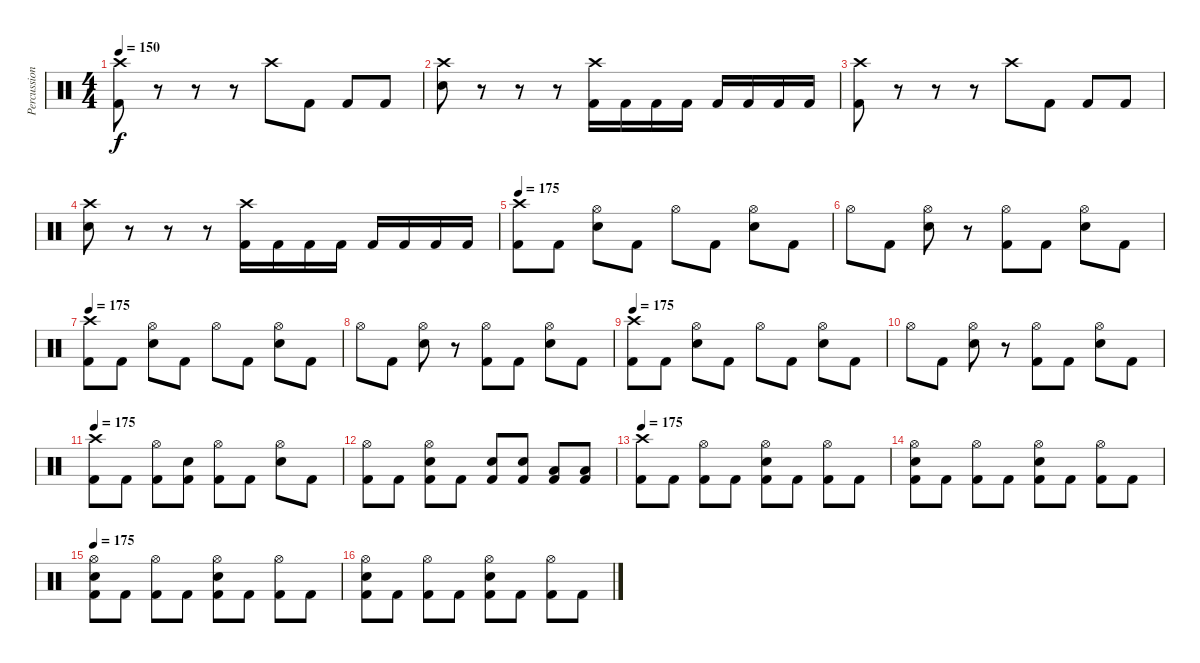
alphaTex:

\track ("Percussion" "Percussion") {instrument percussion}
\staff {score}
\articulation defaults
\ts (4 4)
\tempo 150
\clef neutral
\ks c
("Crash high (hit)" "Kick (hit) 2").8{dy f} r.8 r.8 r.8 "Crash high (hit)".8 "Kick (hit) 2".8 "Kick (hit) 2".8 "Kick (hit) 2".8 |
("Crash high (hit)" "Electric Snare (hit)").8 r.8 r.8 r.8 ("Crash high (hit)" "Kick (hit) 2").16 "Kick (hit) 2".16 "Kick (hit) 2".16 "Kick (hit) 2".16 "Kick (hit) 2".16 "Kick (hit) 2".16 "Kick (hit) 2".16 "Kick (hit) 2".16 |
("Crash high (hit)" "Kick (hit) 2").8 r.8 r.8 r.8 "Crash high (hit)".8 "Kick (hit) 2".8 "Kick (hit) 2".8 "Kick (hit) 2".8 |
("Crash high (hit)" "Electric Snare (hit)").8 r.8 r.8 r.8 ("Crash high (hit)" "Kick (hit) 2").16 "Kick (hit) 2".16 "Kick (hit) 2".16 "Kick (hit) 2".16 "Kick (hit) 2".16 "Kick (hit) 2".16 "Kick (hit) 2".16 "Kick (hit) 2".16 |
\tempo 175
("Crash high (hit)" "Kick (hit) 2").8 "Kick (hit) 2".8 ("Hi-Hat (open)" "Electric Snare (hit)").8 "Kick (hit) 2".8 "Hi-Hat (open)".8 "Kick (hit) 2".8 ("Hi-Hat (open)" "Electric Snare (hit)").8 "Kick (hit) 2".8 |
"Hi-Hat (open)".8 "Kick (hit) 2".8 ("Hi-Hat (open)" "Electric Snare (hit)").8 r.8 ("Hi-Hat (open)" "Kick (hit) 2").8 "Kick (hit) 2".8 ("Hi-Hat (open)" "Electric Snare (hit)").8 "Kick (hit) 2".8 |
\tempo 175
("Crash high (hit)" "Kick (hit) 2").8 "Kick (hit) 2".8 ("Hi-Hat (open)" "Electric Snare (hit)").8 "Kick (hit) 2".8 "Hi-Hat (open)".8 "Kick (hit) 2".8 ("Hi-Hat (open)" "Electric Snare (hit)").8 "Kick (hit) 2".8 |
"Hi-Hat (open)".8 "Kick (hit) 2".8 ("Hi-Hat (open)" "Electric Snare (hit)").8 r.8 ("Hi-Hat (open)" "Kick (hit) 2").8 "Kick (hit) 2".8 ("Hi-Hat (open)" "Electric Snare (hit)").8 "Kick (hit) 2".8 |
\tempo 175
("Crash high (hit)" "Kick (hit) 2").8 "Kick (hit) 2".8 ("Hi-Hat (open)" "Electric Snare (hit)").8 "Kick (hit) 2".8 "Hi-Hat (open)".8 "Kick (hit) 2".8 ("Hi-Hat (open)" "Electric Snare (hit)").8 "Kick (hit) 2".8 |
"Hi-Hat (open)".8 "Kick (hit) 2".8 ("Hi-Hat (open)" "Electric Snare (hit)").8 r.8 ("Hi-Hat (open)" "Kick (hit) 2").8 "Kick (hit) 2".8 ("Hi-Hat (open)" "Electric Snare (hit)").8 "Kick (hit) 2".8 |
\tempo 175
("Crash high (hit)" "Kick (hit) 2").8 "Kick (hit) 2".8 ("Hi-Hat (open)" "Kick (hit) 2").8 ("Electric Snare (hit)" "Kick (hit) 2").8 ("Hi-Hat (open)" "Kick (hit) 2").8 "Kick (hit) 2".8 ("Hi-Hat (open)" "Electric Snare (hit)").8 "Kick (hit) 2".8 |
("Hi-Hat (open)" "Kick (hit) 2").8 "Kick (hit) 2".8 ("Hi-Hat (open)" "Electric Snare (hit)" "Kick (hit) 2").8 "Kick (hit) 2".8 ("Electric Snare (hit)" "Kick (hit) 2").8 ("Electric Snare (hit)" "Kick (hit) 2").8 ("Low Tom (hit)" "Kick (hit) 2").8 ("Low Tom (hit)" "Kick (hit) 2").8 |
\tempo 175
("Crash high (hit)" "Kick (hit) 2").8 "Kick (hit) 2".8 ("Hi-Hat (open)" "Kick (hit) 2").8 "Kick (hit) 2".8 ("Hi-Hat (open)" "Electric Snare (hit)" "Kick (hit) 2").8 "Kick (hit) 2".8 ("Hi-Hat (open)" "Kick (hit) 2").8 "Kick (hit) 2".8 |
("Hi-Hat (open)" "Electric Snare (hit)" "Kick (hit) 2").8 "Kick (hit) 2".8 ("Hi-Hat (open)" "Kick (hit) 2").8 "Kick (hit) 2".8 ("Hi-Hat (open)" "Electric Snare (hit)" "Kick (hit) 2").8 "Kick (hit) 2".8 ("Hi-Hat (open)" "Kick (hit) 2").8 "Kick (hit) 2".8 |
\tempo 175
("Hi-Hat (open)" "Electric Snare (hit)" "Kick (hit) 2").8 "Kick (hit) 2".8 ("Hi-Hat (open)" "Kick (hit) 2").8 "Kick (hit) 2".8 ("Hi-Hat (open)" "Electric Snare (hit)" "Kick (hit) 2").8 "Kick (hit) 2".8 ("Hi-Hat (open)" "Kick (hit) 2").8 "Kick (hit) 2".8 |
("Hi-Hat (open)" "Electric Snare (hit)" "Kick (hit) 2").8 "Kick (hit) 2".8 ("Hi-Hat (open)" "Kick (hit) 2").8 "Kick (hit) 2".8 ("Hi-Hat (open)" "Electric Snare (hit)" "Kick (hit) 2").8 "Kick (hit) 2".8 ("Hi-Hat (open)" "Kick (hit) 2").8 "Kick (hit) 2".8
